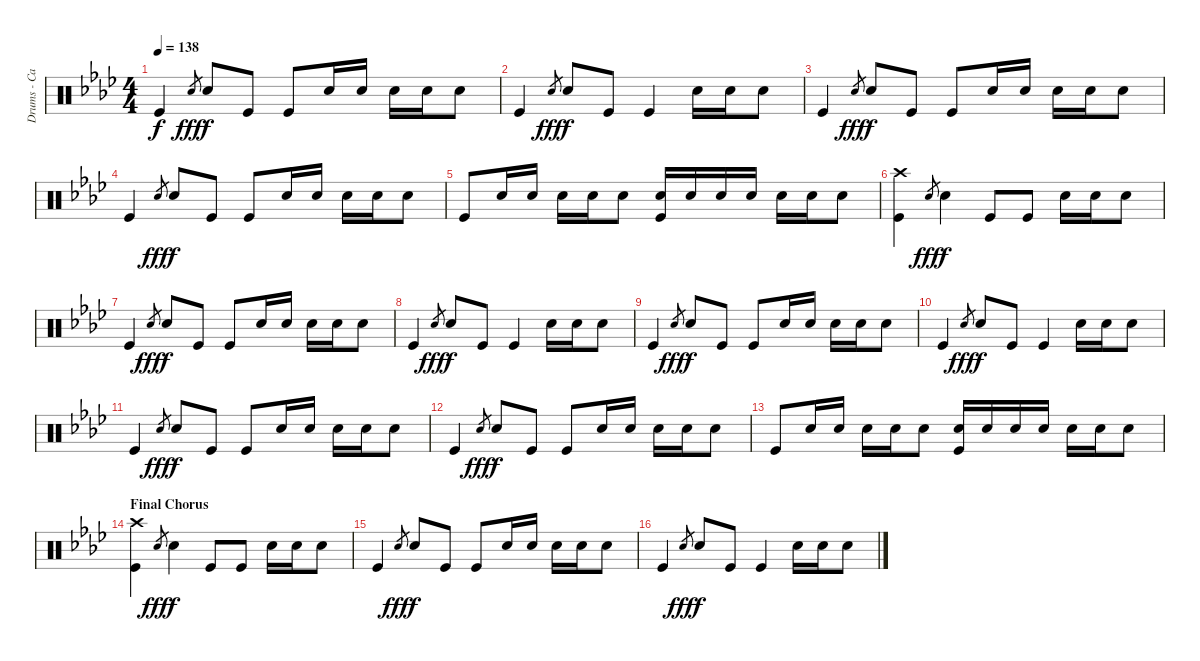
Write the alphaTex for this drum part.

\track ("Drums - Carl Palmer" "Drums - Ca") {instrument percussion}
\staff {score}
\articulation defaults
\ts (4 4)
\tempo 138
\clef neutral
\ks ab "Kick (hit)".4{dy f} "Snare (hit) 2".8{gr dy fff} "Snare (hit) 2".8{dy f} "Kick (hit)".8 "Kick (hit)".8 "Snare (hit) 2".16 "Snare (hit) 2".16 "Snare (hit) 2".16 "Snare (hit) 2".16 "Snare (hit) 2".8
|
"Kick (hit)".4 "Snare (hit) 2".8{gr dy fff} "Snare (hit) 2".8{dy f} "Kick (hit)".8 "Kick (hit)".4 "Snare (hit) 2".16 "Snare (hit) 2".16 "Snare (hit) 2".8 |
"Kick (hit)".4 "Snare (hit) 2".8{gr dy fff} "Snare (hit) 2".8{dy f} "Kick (hit)".8 "Kick (hit)".8 "Snare (hit) 2".16 "Snare (hit) 2".16 "Snare (hit) 2".16 "Snare (hit) 2".16 "Snare (hit) 2".8 |
"Kick (hit)".4 "Snare (hit) 2".8{gr dy fff} "Snare (hit) 2".8{dy f} "Kick (hit)".8 "Kick (hit)".8 "Snare (hit) 2".16 "Snare (hit) 2".16 "Snare (hit) 2".16 "Snare (hit) 2".16 "Snare (hit) 2".8 |
"Kick (hit)".8 "Snare (hit) 2".16 "Snare (hit) 2".16 "Snare (hit) 2".16 "Snare (hit) 2".16 "Snare (hit) 2".8 ("Snare (hit) 2" "Kick (hit)").16 "Snare (hit) 2".16 "Snare (hit) 2".16 "Snare (hit) 2".16 "Snare (hit) 2".16 "Snare (hit) 2".16 "Snare (hit) 2".8 |
("Crash high (hit)" "Kick (hit)").4 "Snare (hit) 2".8{gr dy fff} "Snare (hit) 2".4{dy f} "Kick (hit)".8 "Kick (hit)".8 "Snare (hit) 2".16 "Snare (hit) 2".16 "Snare (hit) 2".8 |
"Kick (hit)".4 "Snare (hit) 2".8{gr dy fff} "Snare (hit) 2".8{dy f} "Kick (hit)".8 "Kick (hit)".8 "Snare (hit) 2".16 "Snare (hit) 2".16 "Snare (hit) 2".16 "Snare (hit) 2".16 "Snare (hit) 2".8 |
"Kick (hit)".4 "Snare (hit) 2".8{gr dy fff} "Snare (hit) 2".8{dy f} "Kick (hit)".8 "Kick (hit)".4 "Snare (hit) 2".16 "Snare (hit) 2".16 "Snare (hit) 2".8 |
"Kick (hit)".4 "Snare (hit) 2".8{gr dy fff} "Snare (hit) 2".8{dy f} "Kick (hit)".8 "Kick (hit)".8 "Snare (hit) 2".16 "Snare (hit) 2".16 "Snare (hit) 2".16 "Snare (hit) 2".16 "Snare (hit) 2".8 |
"Kick (hit)".4 "Snare (hit) 2".8{gr dy fff} "Snare (hit) 2".8{dy f} "Kick (hit)".8 "Kick (hit)".4 "Snare (hit) 2".16 "Snare (hit) 2".16 "Snare (hit) 2".8 |
"Kick (hit)".4 "Snare (hit) 2".8{gr dy fff} "Snare (hit) 2".8{dy f} "Kick (hit)".8 "Kick (hit)".8 "Snare (hit) 2".16 "Snare (hit) 2".16 "Snare (hit) 2".16 "Snare (hit) 2".16 "Snare (hit) 2".8 |
"Kick (hit)".4 "Snare (hit) 2".8{gr dy fff} "Snare (hit) 2".8{dy f} "Kick (hit)".8 "Kick (hit)".8 "Snare (hit) 2".16 "Snare (hit) 2".16 "Snare (hit) 2".16 "Snare (hit) 2".16 "Snare (hit) 2".8 |
"Kick (hit)".8 "Snare (hit) 2".16 "Snare (hit) 2".16 "Snare (hit) 2".16 "Snare (hit) 2".16 "Snare (hit) 2".8 ("Snare (hit) 2" "Kick (hit)").16 "Snare (hit) 2".16 "Snare (hit) 2".16 "Snare (hit) 2".16 "Snare (hit) 2".16 "Snare (hit) 2".16 "Snare (hit) 2".8 |
\section ("" "Final Chorus")
("Crash high (hit)" "Kick (hit)").4 "Snare (hit) 2".8{gr dy fff} "Snare (hit) 2".4{dy f} "Kick (hit)".8 "Kick (hit)".8 "Snare (hit) 2".16 "Snare (hit) 2".16 "Snare (hit) 2".8 |
"Kick (hit)".4 "Snare (hit) 2".8{gr dy fff} "Snare (hit) 2".8{dy f} "Kick (hit)".8 "Kick (hit)".8 "Snare (hit) 2".16 "Snare (hit) 2".16 "Snare (hit) 2".16 "Snare (hit) 2".16 "Snare (hit) 2".8 |
"Kick (hit)".4 "Snare (hit) 2".8{gr dy fff} "Snare (hit) 2".8{dy f} "Kick (hit)".8 "Kick (hit)".4 "Snare (hit) 2".16 "Snare (hit) 2".16 "Snare (hit) 2".8
